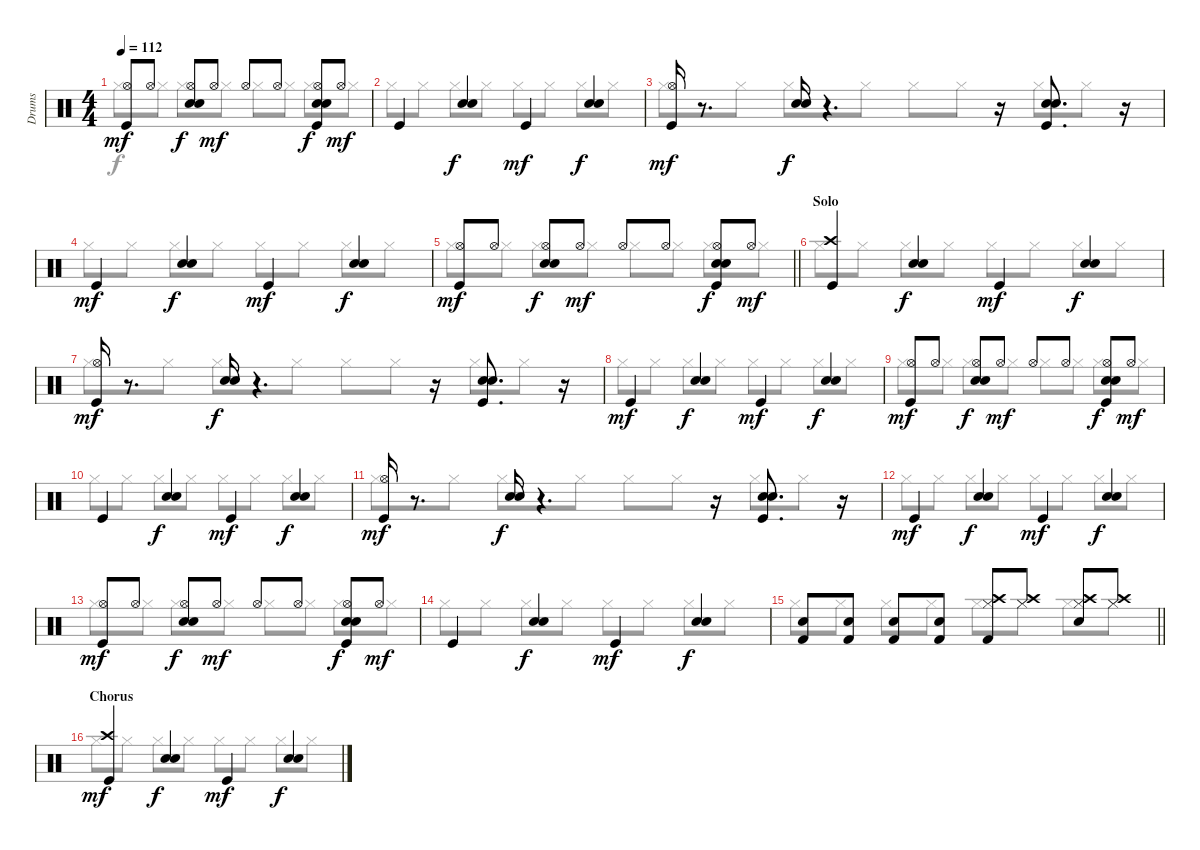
\track ("Drums" "Drums") {instrument percussion}
\staff {score}
\articulation defaults
\voice
\ts (4 4)
\tempo 112
\clef neutral
\ks c
("Hi-Hat (open)" "Kick (hit)").8{dy mf} "Hi-Hat (open)".8 ("Hi-Hat (open)" "Electric Snare (hit)" "Snare (hit) 2").8{dy f} "Hi-Hat (open)".8{dy mf} "Hi-Hat (open)".8 "Hi-Hat (open)".8 ("Hi-Hat (open)" "Electric Snare (hit)" "Snare (hit) 2" "Kick (hit)").8{dy f} "Hi-Hat (open)".8{dy mf} |
"Kick (hit)".4 ("Electric Snare (hit)" "Snare (hit) 2").4{dy f} "Kick (hit)".4{dy mf} ("Electric Snare (hit)" "Snare (hit) 2").4{dy f} |
("Hi-Hat (open)" "Kick (hit)").16{dy mf} r.8{d} ("Electric Snare (hit)" "Snare (hit) 2").16{dy f} r.4{d} r.16 ("Electric Snare (hit)" "Snare (hit) 2" "Kick (hit)").8{d} r.16 |
"Kick (hit)".4{dy mf} ("Electric Snare (hit)" "Snare (hit) 2").4{dy f} "Kick (hit)".4{dy mf} ("Electric Snare (hit)" "Snare (hit) 2").4{dy f} |
\barLineRight lightlight
("Hi-Hat (open)" "Kick (hit)").8{dy mf} "Hi-Hat (open)".8 ("Hi-Hat (open)" "Electric Snare (hit)" "Snare (hit) 2").8{dy f} "Hi-Hat (open)".8{dy mf} "Hi-Hat (open)".8 "Hi-Hat (open)".8 ("Hi-Hat (open)" "Electric Snare (hit)" "Snare (hit) 2" "Kick (hit)").8{dy f} "Hi-Hat (open)".8{dy mf} |
\section ("" "Solo")
("Kick (hit)" "Crash high (hit)").4 ("Electric Snare (hit)" "Snare (hit) 2").4{dy f} "Kick (hit)".4{dy mf} ("Electric Snare (hit)" "Snare (hit) 2").4{dy f} |
("Hi-Hat (open)" "Kick (hit)").16{dy mf} r.8{d} ("Electric Snare (hit)" "Snare (hit) 2").16{dy f} r.4{d} r.16 ("Electric Snare (hit)" "Snare (hit) 2" "Kick (hit)").8{d} r.16 |
"Kick (hit)".4{dy mf} ("Electric Snare (hit)" "Snare (hit) 2").4{dy f} "Kick (hit)".4{dy mf} ("Electric Snare (hit)" "Snare (hit) 2").4{dy f} |
("Hi-Hat (open)" "Kick (hit)").8{dy mf} "Hi-Hat (open)".8 ("Hi-Hat (open)" "Electric Snare (hit)" "Snare (hit) 2").8{dy f} "Hi-Hat (open)".8{dy mf} "Hi-Hat (open)".8 "Hi-Hat (open)".8 ("Hi-Hat (open)" "Electric Snare (hit)" "Snare (hit) 2" "Kick (hit)").8{dy f} "Hi-Hat (open)".8{dy mf} |
"Kick (hit)".4 ("Electric Snare (hit)" "Snare (hit) 2").4{dy f} "Kick (hit)".4{dy mf} ("Electric Snare (hit)" "Snare (hit) 2").4{dy f} |
("Hi-Hat (open)" "Kick (hit)").16{dy mf} r.8{d} ("Electric Snare (hit)" "Snare (hit) 2").16{dy f} r.4{d} r.16 ("Electric Snare (hit)" "Snare (hit) 2" "Kick (hit)").8{d} r.16 |
"Kick (hit)".4{dy mf} ("Electric Snare (hit)" "Snare (hit) 2").4{dy f} "Kick (hit)".4{dy mf} ("Electric Snare (hit)" "Snare (hit) 2").4{dy f} |
("Hi-Hat (open)" "Kick (hit)").8{dy mf} "Hi-Hat (open)".8 ("Hi-Hat (open)" "Electric Snare (hit)" "Snare (hit) 2").8{dy f} "Hi-Hat (open)".8{dy mf} "Hi-Hat (open)".8 "Hi-Hat (open)".8 ("Hi-Hat (open)" "Electric Snare (hit)" "Snare (hit) 2" "Kick (hit)").8{dy f} "Hi-Hat (open)".8{dy mf} |
"Kick (hit)".4 ("Electric Snare (hit)" "Snare (hit) 2").4{dy f} "Kick (hit)".4{dy mf} ("Electric Snare (hit)" "Snare (hit) 2").4{dy f} |
\barLineRight lightlight
("Snare (hit) 2" "Kick (hit) 2").8 ("Snare (hit) 2" "Kick (hit) 2").8 ("Snare (hit) 2" "Kick (hit) 2").8 ("Snare (hit) 2" "Kick (hit) 2").8 ("Crash high (hit)" "Kick (hit) 2" "Hi-Hat (closed)").8 ("Crash high (hit)" "Hi-Hat (closed)").8 ("Crash high (hit)" "Snare (hit) 2" "Hi-Hat (closed)").8 ("Crash high (hit)" "Hi-Hat (closed)").8 |
\section ("" "Chorus")
("Kick (hit)" "Crash high (hit)").4{dy mf} ("Electric Snare (hit)" "Snare (hit) 2").4{dy f} "Kick (hit)".4{dy mf} ("Electric Snare (hit)" "Snare (hit) 2").4{dy f}
\voice
\clef neutral
\ottava regular
\simile none
\ks c "Hi-Hat (closed)".8{dy f} "Hi-Hat (closed)".8 "Hi-Hat (closed)".8 "Hi-Hat (closed)".8 "Hi-Hat (closed)".8 "Hi-Hat (closed)".8 "Hi-Hat (closed)".8 "Hi-Hat (closed)".8
|
"Hi-Hat (closed)".8 "Hi-Hat (closed)".8 "Hi-Hat (closed)".8 "Hi-Hat (closed)".8 "Hi-Hat (closed)".8 "Hi-Hat (closed)".8 "Hi-Hat (closed)".8 "Hi-Hat (closed)".8 |
"Hi-Hat (closed)".8 "Hi-Hat (closed)".8 "Hi-Hat (closed)".8 "Hi-Hat (closed)".8 "Hi-Hat (closed)".8 "Hi-Hat (closed)".8 "Hi-Hat (closed)".8 "Hi-Hat (closed)".8 |
"Hi-Hat (closed)".8 "Hi-Hat (closed)".8 "Hi-Hat (closed)".8 "Hi-Hat (closed)".8 "Hi-Hat (closed)".8 "Hi-Hat (closed)".8 "Hi-Hat (closed)".8 "Hi-Hat (closed)".8 |
\barLineRight lightlight "Hi-Hat (closed)".8 "Hi-Hat (closed)".8 "Hi-Hat (closed)".8 "Hi-Hat (closed)".8 "Hi-Hat (closed)".8 "Hi-Hat (closed)".8 "Hi-Hat (closed)".8 "Hi-Hat (closed)".8
|
"Hi-Hat (closed)".8 "Hi-Hat (closed)".8 "Hi-Hat (closed)".8 "Hi-Hat (closed)".8 "Hi-Hat (closed)".8 "Hi-Hat (closed)".8 "Hi-Hat (closed)".8 "Hi-Hat (closed)".8 |
"Hi-Hat (closed)".8 "Hi-Hat (closed)".8 "Hi-Hat (closed)".8 "Hi-Hat (closed)".8 "Hi-Hat (closed)".8 "Hi-Hat (closed)".8 "Hi-Hat (closed)".8 "Hi-Hat (closed)".8 |
"Hi-Hat (closed)".8 "Hi-Hat (closed)".8 "Hi-Hat (closed)".8 "Hi-Hat (closed)".8 "Hi-Hat (closed)".8 "Hi-Hat (closed)".8 "Hi-Hat (closed)".8 "Hi-Hat (closed)".8 |
"Hi-Hat (closed)".8 "Hi-Hat (closed)".8 "Hi-Hat (closed)".8 "Hi-Hat (closed)".8 "Hi-Hat (closed)".8 "Hi-Hat (closed)".8 "Hi-Hat (closed)".8 "Hi-Hat (closed)".8 |
"Hi-Hat (closed)".8 "Hi-Hat (closed)".8 "Hi-Hat (closed)".8 "Hi-Hat (closed)".8 "Hi-Hat (closed)".8 "Hi-Hat (closed)".8 "Hi-Hat (closed)".8 "Hi-Hat (closed)".8 |
"Hi-Hat (closed)".8 "Hi-Hat (closed)".8 "Hi-Hat (closed)".8 "Hi-Hat (closed)".8 "Hi-Hat (closed)".8 "Hi-Hat (closed)".8 "Hi-Hat (closed)".8 "Hi-Hat (closed)".8 |
"Hi-Hat (closed)".8 "Hi-Hat (closed)".8 "Hi-Hat (closed)".8 "Hi-Hat (closed)".8 "Hi-Hat (closed)".8 "Hi-Hat (closed)".8 "Hi-Hat (closed)".8 "Hi-Hat (closed)".8 |
"Hi-Hat (closed)".8 "Hi-Hat (closed)".8 "Hi-Hat (closed)".8 "Hi-Hat (closed)".8 "Hi-Hat (closed)".8 "Hi-Hat (closed)".8 "Hi-Hat (closed)".8 "Hi-Hat (closed)".8 |
"Hi-Hat (closed)".8 "Hi-Hat (closed)".8 "Hi-Hat (closed)".8 "Hi-Hat (closed)".8 "Hi-Hat (closed)".8 "Hi-Hat (closed)".8 "Hi-Hat (closed)".8 "Hi-Hat (closed)".8 |
\barLineRight lightlight "Hi-Hat (closed)".8 "Hi-Hat (closed)".8 "Hi-Hat (closed)".8 "Hi-Hat (closed)".8 "Hi-Hat (closed)".8 "Hi-Hat (closed)".8 "Hi-Hat (closed)".8 "Hi-Hat (closed)".8
|
"Hi-Hat (closed)".8 "Hi-Hat (closed)".8 "Hi-Hat (closed)".8 "Hi-Hat (closed)".8 "Hi-Hat (closed)".8 "Hi-Hat (closed)".8 "Hi-Hat (closed)".8 "Hi-Hat (closed)".8
